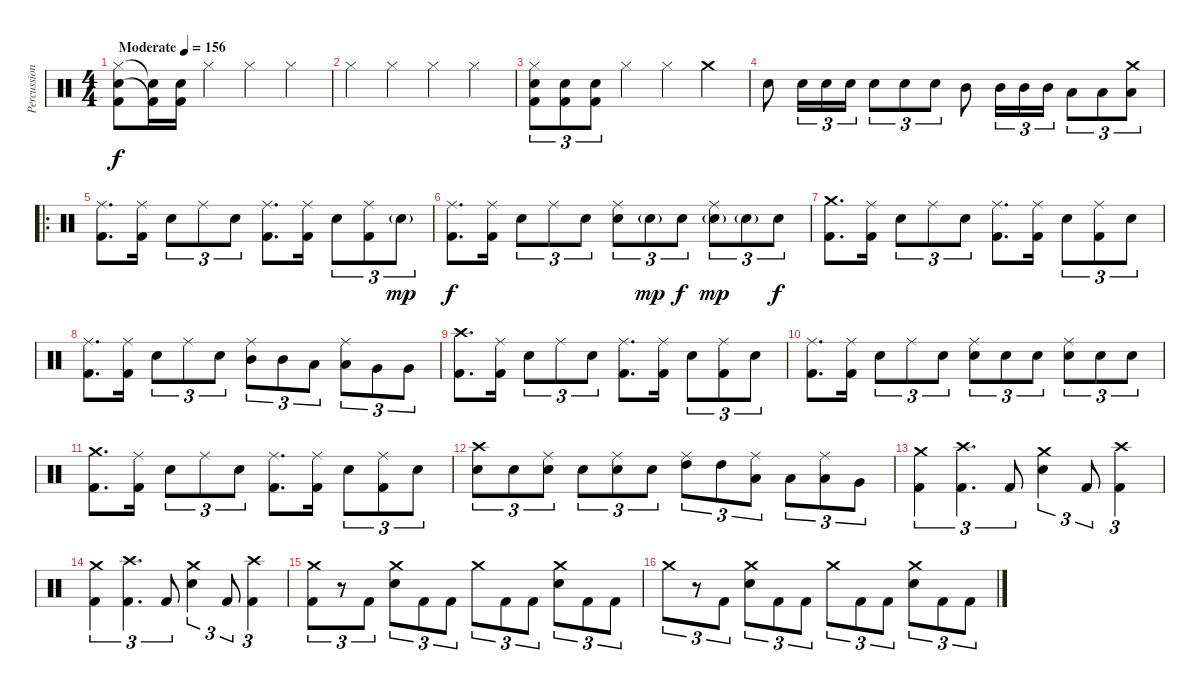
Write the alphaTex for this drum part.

\track ("Percussion" "Percussion") {instrument percussion}
\staff {score}
\articulation defaults
\ts (4 4)
\tempo (156 "Moderate")
\clef neutral
\ks c
("Hi-Hat (closed)" "Electric Snare (hit)" "Kick (hit) 2").8{dy f} ("Electric Snare (hit)"{t} "Kick (hit) 2"{t}).16 ("Electric Snare (hit)" "Kick (hit) 2").16 "Hi-Hat (closed)".4 "Hi-Hat (closed)".4 "Hi-Hat (closed)".4 |
"Hi-Hat (closed)".4 "Hi-Hat (closed)".4 "Hi-Hat (closed)".4 "Hi-Hat (closed)".4 |
("Hi-Hat (closed)" "Electric Snare (hit)" "Kick (hit) 2").8{tu (3 2)} ("Electric Snare (hit)" "Kick (hit) 2").8{tu (3 2)} ("Electric Snare (hit)" "Kick (hit) 2").8{tu (3 2)} "Hi-Hat (closed)".4 "Hi-Hat (closed)".4 "Crash medium (hit)".4 |
"Electric Snare (hit)".8 "Electric Snare (hit)".16{tu (3 2)} "Electric Snare (hit)".16{tu (3 2)} "Electric Snare (hit)".16{tu (3 2)} "Electric Snare (hit)".8{tu (3 2)} "Electric Snare (hit)".8{tu (3 2)} "Electric Snare (hit)".8{tu (3 2)} "Mid Tom (hit)".8 "Mid Tom (hit)".16{tu (3 2)} "Mid Tom (hit)".16{tu (3 2)} "Mid Tom (hit)".16{tu (3 2)} "Low Tom (hit)".8{tu (3 2)} "Low Tom (hit)".8{tu (3 2)} ("Crash medium (hit)" "Low Tom (hit)").8{tu (3 2)} |
\ro
("Ride (middle)" "Kick (hit) 2").8{d} ("Ride (middle)" "Kick (hit) 2").16 "Electric Snare (hit)".8{tu (3 2)} "Ride (middle)".8{tu (3 2)} "Electric Snare (hit)".8{tu (3 2)} ("Ride (middle)" "Kick (hit) 2").8{d} ("Ride (middle)" "Kick (hit) 2").16 "Electric Snare (hit)".8{tu (3 2)} ("Ride (middle)" "Kick (hit) 2").8{tu (3 2)} "Electric Snare (hit)"{g}.8{tu (3 2) dy mp} |
("Ride (middle)" "Kick (hit) 2").8{d dy f} ("Ride (middle)" "Kick (hit) 2").16 "Electric Snare (hit)".8{tu (3 2)} "Ride (middle)".8{tu (3 2)} "Electric Snare (hit)".8{tu (3 2)} ("Ride (middle)" "Electric Snare (hit)").8{tu (3 2)} "Electric Snare (hit)"{g}.8{tu (3 2) dy mp} "Electric Snare (hit)".8{tu (3 2) dy f} ("Ride (middle)" "Electric Snare (hit)"{g}).8{tu (3 2) dy mp} "Electric Snare (hit)"{g}.8{tu (3 2)} "Electric Snare (hit)".8{tu (3 2) dy f} |
("Crash medium (hit)" "Kick (hit) 2").8{d} ("Ride (middle)" "Kick (hit) 2").16 "Electric Snare (hit)".8{tu (3 2)} "Ride (middle)".8{tu (3 2)} "Electric Snare (hit)".8{tu (3 2)} ("Ride (middle)" "Kick (hit) 2").8{d} ("Ride (middle)" "Kick (hit) 2").16 "Electric Snare (hit)".8{tu (3 2)} ("Ride (middle)" "Kick (hit) 2").8{tu (3 2)} "Electric Snare (hit)".8{tu (3 2)} |
("Ride (middle)" "Kick (hit) 2").8{d} ("Ride (middle)" "Kick (hit) 2").16 "Electric Snare (hit)".8{tu (3 2)} "Ride (middle)".8{tu (3 2)} "Electric Snare (hit)".8{tu (3 2)} ("Ride (middle)" "Mid Tom (hit)").8{tu (3 2)} "Mid Tom (hit)".8{tu (3 2)} "Low Tom (hit)".8{tu (3 2)} ("Ride (middle)" "Low Tom (hit)").8{tu (3 2)} "Very Low Tom (hit)".8{tu (3 2)} "Very Low Tom (hit)".8{tu (3 2)} |
("Crash high (hit)" "Kick (hit) 2").8{d} ("Ride (middle)" "Kick (hit) 2").16 "Electric Snare (hit)".8{tu (3 2)} "Ride (middle)".8{tu (3 2)} "Electric Snare (hit)".8{tu (3 2)} ("Ride (middle)" "Kick (hit) 2").8{d} ("Ride (middle)" "Kick (hit) 2").16 "Electric Snare (hit)".8{tu (3 2)} ("Ride (middle)" "Kick (hit) 2").8{tu (3 2)} "Electric Snare (hit)".8{tu (3 2)} |
("Ride (middle)" "Kick (hit) 2").8{d} ("Ride (middle)" "Kick (hit) 2").16 "Electric Snare (hit)".8{tu (3 2)} "Ride (middle)".8{tu (3 2)} "Electric Snare (hit)".8{tu (3 2)} ("Ride (middle)" "Electric Snare (hit)").8{tu (3 2)} "Electric Snare (hit)".8{tu (3 2)} "Electric Snare (hit)".8{tu (3 2)} ("Ride (middle)" "Electric Snare (hit)").8{tu (3 2)} "Electric Snare (hit)".8{tu (3 2)} "Electric Snare (hit)".8{tu (3 2)} |
("Crash medium (hit)" "Kick (hit) 2").8{d} ("Ride (middle)" "Kick (hit) 2").16 "Electric Snare (hit)".8{tu (3 2)} "Ride (middle)".8{tu (3 2)} "Electric Snare (hit)".8{tu (3 2)} ("Ride (middle)" "Kick (hit) 2").8{d} ("Ride (middle)" "Kick (hit) 2").16 "Electric Snare (hit)".8{tu (3 2)} ("Ride (middle)" "Kick (hit) 2").8{tu (3 2)} "Electric Snare (hit)".8{tu (3 2)} |
("Crash high (hit)" "Electric Snare (hit)").8{tu (3 2)} "Electric Snare (hit)".8{tu (3 2)} ("Ride (middle)" "Electric Snare (hit)").8{tu (3 2)} "Electric Snare (hit)".8{tu (3 2)} ("Ride (middle)" "Electric Snare (hit)").8{tu (3 2)} "Electric Snare (hit)".8{tu (3 2)} ("Ride (middle)" "High Tom (hit)").8{tu (3 2)} "High Tom (hit)".8{tu (3 2)} ("Ride (middle)" "Low Tom (hit)").8{tu (3 2)} "Low Tom (hit)".8{tu (3 2)} ("Ride (middle)" "Low Tom (hit)").8{tu (3 2)} "Very Low Tom (hit)".8{tu (3 2)} |
("Crash medium (hit)" "Kick (hit) 2").4{tu (3 2)} ("Crash high (hit)" "Kick (hit) 2").4{d tu (3 2)} "Kick (hit) 2".8{tu (3 2)} ("Crash medium (hit)" "Electric Snare (hit)").4{tu (3 2)} "Kick (hit) 2".8{tu (3 2)} ("Crash high (hit)" "Kick (hit) 2").4{tu (3 2)} |
("Crash medium (hit)" "Kick (hit) 2").4{tu (3 2)} ("Crash high (hit)" "Kick (hit) 2").4{d tu (3 2)} "Kick (hit) 2".8{tu (3 2)} ("Crash medium (hit)" "Electric Snare (hit)").4{tu (3 2)} "Kick (hit) 2".8{tu (3 2)} ("Crash high (hit)" "Kick (hit) 2").4{tu (3 2)} |
("Crash medium (hit)" "Kick (hit) 2").8{tu (3 2)} r.8{tu (3 2)} "Kick (hit) 2".8{tu (3 2)} ("Crash medium (hit)" "Electric Snare (hit)").8{tu (3 2)} "Kick (hit) 2".8{tu (3 2)} "Kick (hit) 2".8{tu (3 2)} "Crash medium (hit)".8{tu (3 2)} "Kick (hit) 2".8{tu (3 2)} "Kick (hit) 2".8{tu (3 2)} ("Crash medium (hit)" "Electric Snare (hit)").8{tu (3 2)} "Kick (hit) 2".8{tu (3 2)} "Kick (hit) 2".8{tu (3 2)} |
"Crash medium (hit)".8{tu (3 2)} r.8{tu (3 2)} "Kick (hit) 2".8{tu (3 2)} ("Crash medium (hit)" "Electric Snare (hit)").8{tu (3 2)} "Kick (hit) 2".8{tu (3 2)} "Kick (hit) 2".8{tu (3 2)} "Crash medium (hit)".8{tu (3 2)} "Kick (hit) 2".8{tu (3 2)} "Kick (hit) 2".8{tu (3 2)} ("Crash medium (hit)" "Electric Snare (hit)").8{tu (3 2)} "Kick (hit) 2".8{tu (3 2)} "Kick (hit) 2".8{tu (3 2)}
